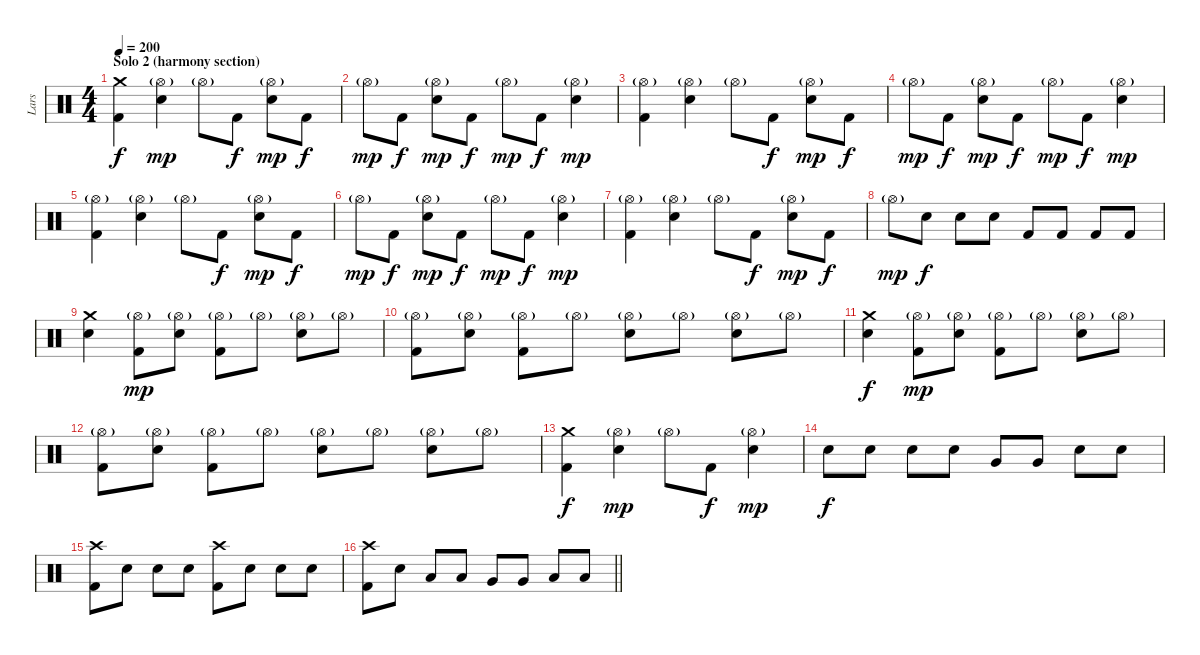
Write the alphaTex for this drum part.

\track ("Lars" "Lars") {instrument percussion}
\staff {score}
\articulation defaults
\ts (4 4)
\section ("" "Solo 2 (harmony section)")
\tempo 200
\clef neutral
\ks c
("Crash medium (hit)" "Kick (hit) 2").4{dy f} ("Hi-Hat (open)"{g} "Electric Snare (hit)").4{dy mp} "Hi-Hat (open)"{g}.8 "Kick (hit) 2".8{dy f} ("Hi-Hat (open)"{g} "Electric Snare (hit)").8{dy mp} "Kick (hit) 2".8{dy f} |
"Hi-Hat (open)"{g}.8{dy mp} "Kick (hit) 2".8{dy f} ("Hi-Hat (open)"{g} "Electric Snare (hit)").8{dy mp} "Kick (hit) 2".8{dy f} "Hi-Hat (open)"{g}.8{dy mp} "Kick (hit) 2".8{dy f} ("Hi-Hat (open)"{g} "Electric Snare (hit)").4{dy mp} |
("Hi-Hat (open)"{g} "Kick (hit) 2").4 ("Hi-Hat (open)"{g} "Electric Snare (hit)").4 "Hi-Hat (open)"{g}.8 "Kick (hit) 2".8{dy f} ("Hi-Hat (open)"{g} "Electric Snare (hit)").8{dy mp} "Kick (hit) 2".8{dy f} |
"Hi-Hat (open)"{g}.8{dy mp} "Kick (hit) 2".8{dy f} ("Hi-Hat (open)"{g} "Electric Snare (hit)").8{dy mp} "Kick (hit) 2".8{dy f} "Hi-Hat (open)"{g}.8{dy mp} "Kick (hit) 2".8{dy f} ("Hi-Hat (open)"{g} "Electric Snare (hit)").4{dy mp} |
("Hi-Hat (open)"{g} "Kick (hit) 2").4 ("Hi-Hat (open)"{g} "Electric Snare (hit)").4 "Hi-Hat (open)"{g}.8 "Kick (hit) 2".8{dy f} ("Hi-Hat (open)"{g} "Electric Snare (hit)").8{dy mp} "Kick (hit) 2".8{dy f} |
"Hi-Hat (open)"{g}.8{dy mp} "Kick (hit) 2".8{dy f} ("Hi-Hat (open)"{g} "Electric Snare (hit)").8{dy mp} "Kick (hit) 2".8{dy f} "Hi-Hat (open)"{g}.8{dy mp} "Kick (hit) 2".8{dy f} ("Hi-Hat (open)"{g} "Electric Snare (hit)").4{dy mp} |
("Hi-Hat (open)"{g} "Kick (hit) 2").4 ("Hi-Hat (open)"{g} "Electric Snare (hit)").4 "Hi-Hat (open)"{g}.8 "Kick (hit) 2".8{dy f} ("Hi-Hat (open)"{g} "Electric Snare (hit)").8{dy mp} "Kick (hit) 2".8{dy f} |
"Hi-Hat (open)"{g}.8{dy mp} "Electric Snare (hit)".8{dy f} "Electric Snare (hit)".8 "Electric Snare (hit)".8 "Kick (hit) 2".8 "Kick (hit) 2".8 "Kick (hit) 2".8 "Kick (hit) 2".8 |
("Crash medium (hit)" "Electric Snare (hit)").4 ("Hi-Hat (open)"{g} "Kick (hit) 2").8{dy mp} ("Hi-Hat (open)"{g} "Electric Snare (hit)").8 ("Hi-Hat (open)"{g} "Kick (hit) 2").8 "Hi-Hat (open)"{g}.8 ("Hi-Hat (open)"{g} "Electric Snare (hit)").8 "Hi-Hat (open)"{g}.8 |
("Hi-Hat (open)"{g} "Kick (hit) 2").8 ("Hi-Hat (open)"{g} "Electric Snare (hit)").8 ("Hi-Hat (open)"{g} "Kick (hit) 2").8 "Hi-Hat (open)"{g}.8 ("Hi-Hat (open)"{g} "Electric Snare (hit)").8 "Hi-Hat (open)"{g}.8 ("Hi-Hat (open)"{g} "Electric Snare (hit)").8 "Hi-Hat (open)"{g}.8 |
("Crash medium (hit)" "Electric Snare (hit)").4{dy f} ("Hi-Hat (open)"{g} "Kick (hit) 2").8{dy mp} ("Hi-Hat (open)"{g} "Electric Snare (hit)").8 ("Hi-Hat (open)"{g} "Kick (hit) 2").8 "Hi-Hat (open)"{g}.8 ("Hi-Hat (open)"{g} "Electric Snare (hit)").8 "Hi-Hat (open)"{g}.8 |
("Hi-Hat (open)"{g} "Kick (hit) 2").8 ("Hi-Hat (open)"{g} "Electric Snare (hit)").8 ("Hi-Hat (open)"{g} "Kick (hit) 2").8 "Hi-Hat (open)"{g}.8 ("Hi-Hat (open)"{g} "Electric Snare (hit)").8 "Hi-Hat (open)"{g}.8 ("Hi-Hat (open)"{g} "Electric Snare (hit)").8 "Hi-Hat (open)"{g}.8 |
("Crash medium (hit)" "Kick (hit) 2").4{dy f} ("Hi-Hat (open)"{g} "Electric Snare (hit)").4{dy mp} "Hi-Hat (open)"{g}.8 "Kick (hit) 2".8{dy f} ("Hi-Hat (open)"{g} "Electric Snare (hit)").4{dy mp} |
"Electric Snare (hit)".8{dy f} "Electric Snare (hit)".8 "Electric Snare (hit)".8 "Electric Snare (hit)".8 "Very Low Tom (hit)".8 "Very Low Tom (hit)".8 "Electric Snare (hit)".8 "Electric Snare (hit)".8 |
("Crash high (hit)" "Kick (hit) 2").8 "Electric Snare (hit)".8 "Electric Snare (hit)".8 "Electric Snare (hit)".8 ("Crash high (hit)" "Kick (hit) 2").8 "Electric Snare (hit)".8 "Electric Snare (hit)".8 "Electric Snare (hit)".8 |
\barLineRight lightlight
("Crash high (hit)" "Kick (hit) 2").8 "Electric Snare (hit)".8 "Low Tom (hit)".8 "Low Tom (hit)".8 "Very Low Tom (hit)".8 "Very Low Tom (hit)".8 "Low Floor Tom (hit)".8 "Low Floor Tom (hit)".8
